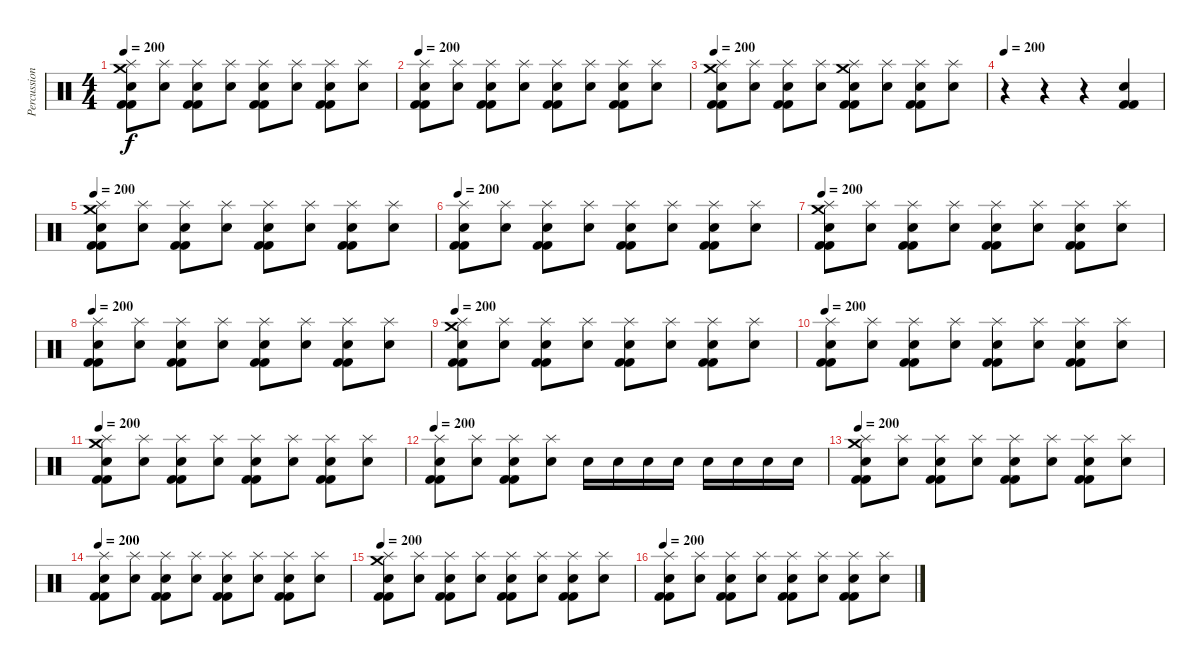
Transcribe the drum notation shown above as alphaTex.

\track ("Percussions" "Percussion") {instrument percussion}
\staff {score}
\articulation defaults
\ts (4 4)
\tempo 200
\clef neutral
\ks c
("Kick (hit) 2" "Kick (hit) 2" "Snare (hit) 2" "Crash medium (hit)" "Splash (hit)").8{dy f} ("Snare (hit) 2" "Splash (hit)").8 ("Kick (hit) 2" "Kick (hit) 2" "Snare (hit) 2" "Splash (hit)").8 ("Snare (hit) 2" "Splash (hit)").8 ("Kick (hit) 2" "Kick (hit) 2" "Snare (hit) 2" "Splash (hit)").8 ("Snare (hit) 2" "Splash (hit)").8 ("Kick (hit) 2" "Kick (hit) 2" "Snare (hit) 2" "Splash (hit)").8 ("Snare (hit) 2" "Splash (hit)").8 |
\tempo 200
("Kick (hit) 2" "Kick (hit) 2" "Snare (hit) 2" "Splash (hit)").8 ("Snare (hit) 2" "Splash (hit)").8 ("Kick (hit) 2" "Kick (hit) 2" "Snare (hit) 2" "Splash (hit)").8 ("Snare (hit) 2" "Splash (hit)").8 ("Kick (hit) 2" "Kick (hit) 2" "Snare (hit) 2" "Splash (hit)").8 ("Snare (hit) 2" "Splash (hit)").8 ("Kick (hit) 2" "Kick (hit) 2" "Snare (hit) 2" "Splash (hit)").8 ("Snare (hit) 2" "Splash (hit)").8 |
\tempo 200
("Kick (hit) 2" "Kick (hit) 2" "Snare (hit) 2" "Crash medium (hit)" "Splash (hit)").8 ("Snare (hit) 2" "Splash (hit)").8 ("Kick (hit) 2" "Kick (hit) 2" "Snare (hit) 2" "Splash (hit)").8 ("Snare (hit) 2" "Splash (hit)").8 ("Kick (hit) 2" "Kick (hit) 2" "Snare (hit) 2" "Crash medium (hit)" "Splash (hit)").8 ("Snare (hit) 2" "Splash (hit)").8 ("Kick (hit) 2" "Kick (hit) 2" "Snare (hit) 2" "Splash (hit)").8 ("Snare (hit) 2" "Splash (hit)").8 |
\tempo 200
r.4 r.4 r.4 ("Kick (hit) 2" "Kick (hit) 2" "Snare (hit) 2").4 |
\tempo 200
("Kick (hit) 2" "Kick (hit) 2" "Snare (hit) 2" "Crash medium (hit)" "Splash (hit)").8 ("Snare (hit) 2" "Splash (hit)").8 ("Kick (hit) 2" "Kick (hit) 2" "Snare (hit) 2" "Splash (hit)").8 ("Snare (hit) 2" "Splash (hit)").8 ("Kick (hit) 2" "Kick (hit) 2" "Snare (hit) 2" "Splash (hit)").8 ("Snare (hit) 2" "Splash (hit)").8 ("Kick (hit) 2" "Kick (hit) 2" "Snare (hit) 2" "Splash (hit)").8 ("Snare (hit) 2" "Splash (hit)").8 |
\tempo 200
("Kick (hit) 2" "Kick (hit) 2" "Snare (hit) 2" "Splash (hit)").8 ("Snare (hit) 2" "Splash (hit)").8 ("Kick (hit) 2" "Kick (hit) 2" "Snare (hit) 2" "Splash (hit)").8 ("Snare (hit) 2" "Splash (hit)").8 ("Kick (hit) 2" "Kick (hit) 2" "Snare (hit) 2" "Splash (hit)").8 ("Snare (hit) 2" "Splash (hit)").8 ("Kick (hit) 2" "Kick (hit) 2" "Snare (hit) 2" "Splash (hit)").8 ("Snare (hit) 2" "Splash (hit)").8 |
\tempo 200
("Kick (hit) 2" "Kick (hit) 2" "Snare (hit) 2" "Crash medium (hit)" "Splash (hit)").8 ("Snare (hit) 2" "Splash (hit)").8 ("Kick (hit) 2" "Kick (hit) 2" "Snare (hit) 2" "Splash (hit)").8 ("Snare (hit) 2" "Splash (hit)").8 ("Kick (hit) 2" "Kick (hit) 2" "Snare (hit) 2" "Splash (hit)").8 ("Snare (hit) 2" "Splash (hit)").8 ("Kick (hit) 2" "Kick (hit) 2" "Snare (hit) 2" "Splash (hit)").8 ("Snare (hit) 2" "Splash (hit)").8 |
\tempo 200
("Kick (hit) 2" "Kick (hit) 2" "Snare (hit) 2" "Splash (hit)").8 ("Snare (hit) 2" "Splash (hit)").8 ("Kick (hit) 2" "Kick (hit) 2" "Snare (hit) 2" "Splash (hit)").8 ("Snare (hit) 2" "Splash (hit)").8 ("Kick (hit) 2" "Kick (hit) 2" "Snare (hit) 2" "Splash (hit)").8 ("Snare (hit) 2" "Splash (hit)").8 ("Kick (hit) 2" "Kick (hit) 2" "Snare (hit) 2" "Splash (hit)").8 ("Snare (hit) 2" "Splash (hit)").8 |
\tempo 200
("Kick (hit) 2" "Kick (hit) 2" "Snare (hit) 2" "Crash medium (hit)" "Splash (hit)").8 ("Snare (hit) 2" "Splash (hit)").8 ("Kick (hit) 2" "Kick (hit) 2" "Snare (hit) 2" "Splash (hit)").8 ("Snare (hit) 2" "Splash (hit)").8 ("Kick (hit) 2" "Kick (hit) 2" "Snare (hit) 2" "Splash (hit)").8 ("Snare (hit) 2" "Splash (hit)").8 ("Kick (hit) 2" "Kick (hit) 2" "Snare (hit) 2" "Splash (hit)").8 ("Snare (hit) 2" "Splash (hit)").8 |
\tempo 200
("Kick (hit) 2" "Kick (hit) 2" "Snare (hit) 2" "Splash (hit)").8 ("Snare (hit) 2" "Splash (hit)").8 ("Kick (hit) 2" "Kick (hit) 2" "Snare (hit) 2" "Splash (hit)").8 ("Snare (hit) 2" "Splash (hit)").8 ("Kick (hit) 2" "Kick (hit) 2" "Snare (hit) 2" "Splash (hit)").8 ("Snare (hit) 2" "Splash (hit)").8 ("Kick (hit) 2" "Kick (hit) 2" "Snare (hit) 2" "Splash (hit)").8 ("Snare (hit) 2" "Splash (hit)").8 |
\tempo 200
("Kick (hit) 2" "Kick (hit) 2" "Snare (hit) 2" "Crash medium (hit)" "Splash (hit)").8 ("Snare (hit) 2" "Splash (hit)").8 ("Kick (hit) 2" "Kick (hit) 2" "Snare (hit) 2" "Splash (hit)").8 ("Snare (hit) 2" "Splash (hit)").8 ("Kick (hit) 2" "Kick (hit) 2" "Snare (hit) 2" "Splash (hit)").8 ("Snare (hit) 2" "Splash (hit)").8 ("Kick (hit) 2" "Kick (hit) 2" "Snare (hit) 2" "Splash (hit)").8 ("Snare (hit) 2" "Splash (hit)").8 |
\tempo 200
("Kick (hit) 2" "Kick (hit) 2" "Snare (hit) 2" "Splash (hit)").8 ("Snare (hit) 2" "Splash (hit)").8 ("Kick (hit) 2" "Kick (hit) 2" "Snare (hit) 2" "Splash (hit)").8 ("Snare (hit) 2" "Splash (hit)").8 "Snare (hit) 2".16 "Snare (hit) 2".16 "Snare (hit) 2".16 "Snare (hit) 2".16 "Snare (hit) 2".16 "Snare (hit) 2".16 "Snare (hit) 2".16 "Snare (hit) 2".16 |
\tempo 200
("Kick (hit) 2" "Kick (hit) 2" "Snare (hit) 2" "Crash medium (hit)" "Splash (hit)").8 ("Snare (hit) 2" "Splash (hit)").8 ("Kick (hit) 2" "Kick (hit) 2" "Snare (hit) 2" "Splash (hit)").8 ("Snare (hit) 2" "Splash (hit)").8 ("Kick (hit) 2" "Kick (hit) 2" "Snare (hit) 2" "Splash (hit)").8 ("Snare (hit) 2" "Splash (hit)").8 ("Kick (hit) 2" "Kick (hit) 2" "Snare (hit) 2" "Splash (hit)").8 ("Snare (hit) 2" "Splash (hit)").8 |
\tempo 200
("Kick (hit) 2" "Kick (hit) 2" "Snare (hit) 2" "Splash (hit)").8 ("Snare (hit) 2" "Splash (hit)").8 ("Kick (hit) 2" "Kick (hit) 2" "Snare (hit) 2" "Splash (hit)").8 ("Snare (hit) 2" "Splash (hit)").8 ("Kick (hit) 2" "Kick (hit) 2" "Snare (hit) 2" "Splash (hit)").8 ("Snare (hit) 2" "Splash (hit)").8 ("Kick (hit) 2" "Kick (hit) 2" "Snare (hit) 2" "Splash (hit)").8 ("Snare (hit) 2" "Splash (hit)").8 |
\tempo 200
("Kick (hit) 2" "Kick (hit) 2" "Snare (hit) 2" "Crash medium (hit)" "Splash (hit)").8 ("Snare (hit) 2" "Splash (hit)").8 ("Kick (hit) 2" "Kick (hit) 2" "Snare (hit) 2" "Splash (hit)").8 ("Snare (hit) 2" "Splash (hit)").8 ("Kick (hit) 2" "Kick (hit) 2" "Snare (hit) 2" "Splash (hit)").8 ("Snare (hit) 2" "Splash (hit)").8 ("Kick (hit) 2" "Kick (hit) 2" "Snare (hit) 2" "Splash (hit)").8 ("Snare (hit) 2" "Splash (hit)").8 |
\tempo 200
("Kick (hit) 2" "Kick (hit) 2" "Snare (hit) 2" "Splash (hit)").8 ("Snare (hit) 2" "Splash (hit)").8 ("Kick (hit) 2" "Kick (hit) 2" "Snare (hit) 2" "Splash (hit)").8 ("Snare (hit) 2" "Splash (hit)").8 ("Kick (hit) 2" "Kick (hit) 2" "Snare (hit) 2" "Splash (hit)").8 ("Snare (hit) 2" "Splash (hit)").8 ("Kick (hit) 2" "Kick (hit) 2" "Snare (hit) 2" "Splash (hit)").8 ("Snare (hit) 2" "Splash (hit)").8
